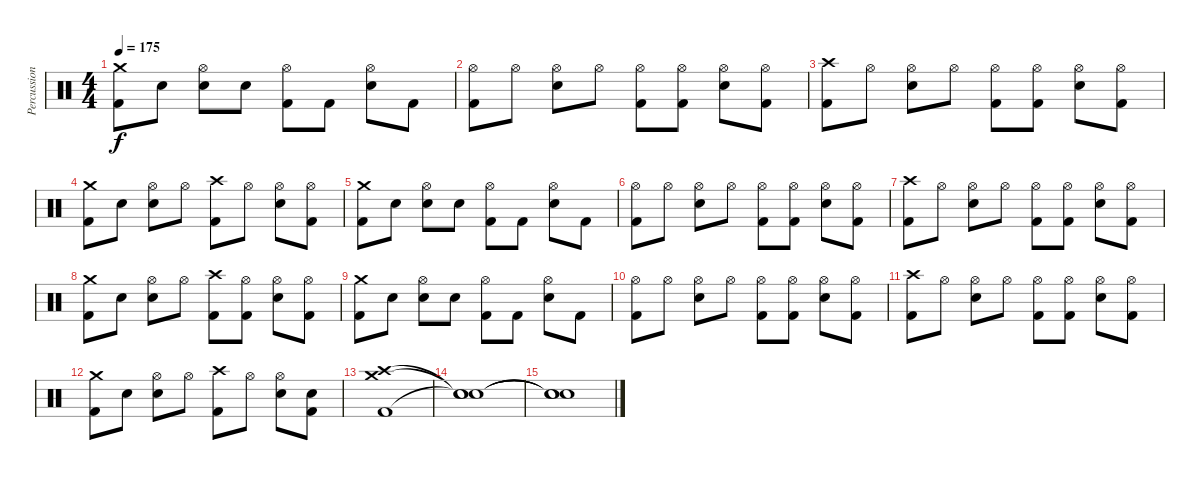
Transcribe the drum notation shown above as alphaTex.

\track ("Percussion" "Percussion") {instrument percussion}
\staff {score}
\articulation defaults
\ts (4 4)
\tempo 175
\clef neutral
\ks c
("Crash medium (hit)" "Kick (hit) 2").8{dy f} "Snare (hit)"{x}.8 ("Hi-Hat (open)" "Electric Snare (hit)").8 "Snare (hit)"{x}.8 ("Hi-Hat (open)" "Kick (hit) 2").8 "Kick (hit) 2".8 ("Hi-Hat (open)" "Electric Snare (hit)").8 "Kick (hit) 2".8 |
("Hi-Hat (open)" "Kick (hit) 2").8 "Hi-Hat (open)"{x}.8 ("Hi-Hat (open)" "Electric Snare (hit)").8 "Hi-Hat (open)"{x}.8 ("Hi-Hat (open)" "Kick (hit) 2").8 ("Hi-Hat (open)"{x} "Kick (hit) 2").8 ("Hi-Hat (open)" "Electric Snare (hit)").8 ("Hi-Hat (open)"{x} "Kick (hit) 2").8 |
("Crash high (hit)" "Kick (hit) 2").8 "Hi-Hat (open)"{x}.8 ("Hi-Hat (open)" "Electric Snare (hit)").8 "Hi-Hat (open)"{x}.8 ("Hi-Hat (open)" "Kick (hit) 2").8 ("Hi-Hat (open)"{x} "Kick (hit) 2").8 ("Hi-Hat (open)" "Electric Snare (hit)").8 ("Hi-Hat (open)"{x} "Kick (hit) 2").8 |
("Crash medium (hit)" "Kick (hit) 2").8 "Snare (hit)"{x}.8 ("Hi-Hat (open)" "Electric Snare (hit)").8 "Hi-Hat (open)"{x}.8 ("Crash high (hit)" "Kick (hit) 2").8 "Hi-Hat (open)"{x}.8 ("Hi-Hat (open)" "Electric Snare (hit)").8 ("Hi-Hat (open)"{x} "Kick (hit) 2").8 |
("Crash medium (hit)" "Kick (hit) 2").8 "Snare (hit)"{x}.8 ("Hi-Hat (open)" "Electric Snare (hit)").8 "Snare (hit)"{x}.8 ("Hi-Hat (open)" "Kick (hit) 2").8 "Kick (hit) 2".8 ("Hi-Hat (open)" "Electric Snare (hit)").8 "Kick (hit) 2".8 |
("Hi-Hat (open)" "Kick (hit) 2").8 "Hi-Hat (open)"{x}.8 ("Hi-Hat (open)" "Electric Snare (hit)").8 "Hi-Hat (open)"{x}.8 ("Hi-Hat (open)" "Kick (hit) 2").8 ("Hi-Hat (open)"{x} "Kick (hit) 2").8 ("Hi-Hat (open)" "Electric Snare (hit)").8 ("Hi-Hat (open)"{x} "Kick (hit) 2").8 |
("Crash high (hit)" "Kick (hit) 2").8 "Hi-Hat (open)"{x}.8 ("Hi-Hat (open)" "Electric Snare (hit)").8 "Hi-Hat (open)"{x}.8 ("Hi-Hat (open)" "Kick (hit) 2").8 ("Hi-Hat (open)"{x} "Kick (hit) 2").8 ("Hi-Hat (open)" "Electric Snare (hit)").8 ("Hi-Hat (open)"{x} "Kick (hit) 2").8 |
("Crash medium (hit)" "Kick (hit) 2").8 "Snare (hit)"{x}.8 ("Hi-Hat (open)" "Electric Snare (hit)").8 "Hi-Hat (open)"{x}.8 ("Crash high (hit)" "Kick (hit) 2").8 ("Hi-Hat (open)"{x} "Kick (hit) 2").8 ("Hi-Hat (open)" "Electric Snare (hit)").8 ("Hi-Hat (open)"{x} "Kick (hit) 2").8 |
("Crash medium (hit)" "Kick (hit) 2").8 "Snare (hit)"{x}.8 ("Hi-Hat (open)" "Electric Snare (hit)").8 "Snare (hit)"{x}.8 ("Hi-Hat (open)" "Kick (hit) 2").8 "Kick (hit) 2".8 ("Hi-Hat (open)" "Electric Snare (hit)").8 "Kick (hit) 2".8 |
("Hi-Hat (open)" "Kick (hit) 2").8 "Hi-Hat (open)"{x}.8 ("Hi-Hat (open)" "Electric Snare (hit)").8 "Hi-Hat (open)"{x}.8 ("Hi-Hat (open)" "Kick (hit) 2").8 ("Hi-Hat (open)"{x} "Kick (hit) 2").8 ("Hi-Hat (open)" "Electric Snare (hit)").8 ("Hi-Hat (open)"{x} "Kick (hit) 2").8 |
("Crash high (hit)" "Kick (hit) 2").8 "Hi-Hat (open)"{x}.8 ("Hi-Hat (open)" "Electric Snare (hit)").8 "Hi-Hat (open)"{x}.8 ("Hi-Hat (open)" "Kick (hit) 2").8 ("Hi-Hat (open)"{x} "Kick (hit) 2").8 ("Hi-Hat (open)" "Electric Snare (hit)").8 ("Hi-Hat (open)"{x} "Kick (hit) 2").8 |
("Crash medium (hit)" "Kick (hit) 2").8 "Snare (hit)"{x}.8 ("Hi-Hat (open)" "Electric Snare (hit)").8 "Hi-Hat (open)"{x}.8 ("Crash high (hit)" "Kick (hit) 2").8 "Hi-Hat (open)"{x}.8 ("Hi-Hat (open)" "Electric Snare (hit)").8 ("Electric Snare (hit)" "Kick (hit) 2").8 |
("Crash medium (hit)" "Crash high (hit)" "Kick (hit) 2").1 |
("Snare (hit)"{t} "Snare (hit)"{t} "Snare (hit)"{t}).1 |
("Snare (hit)"{t} "Snare (hit)"{t} "Snare (hit)"{t}).1
